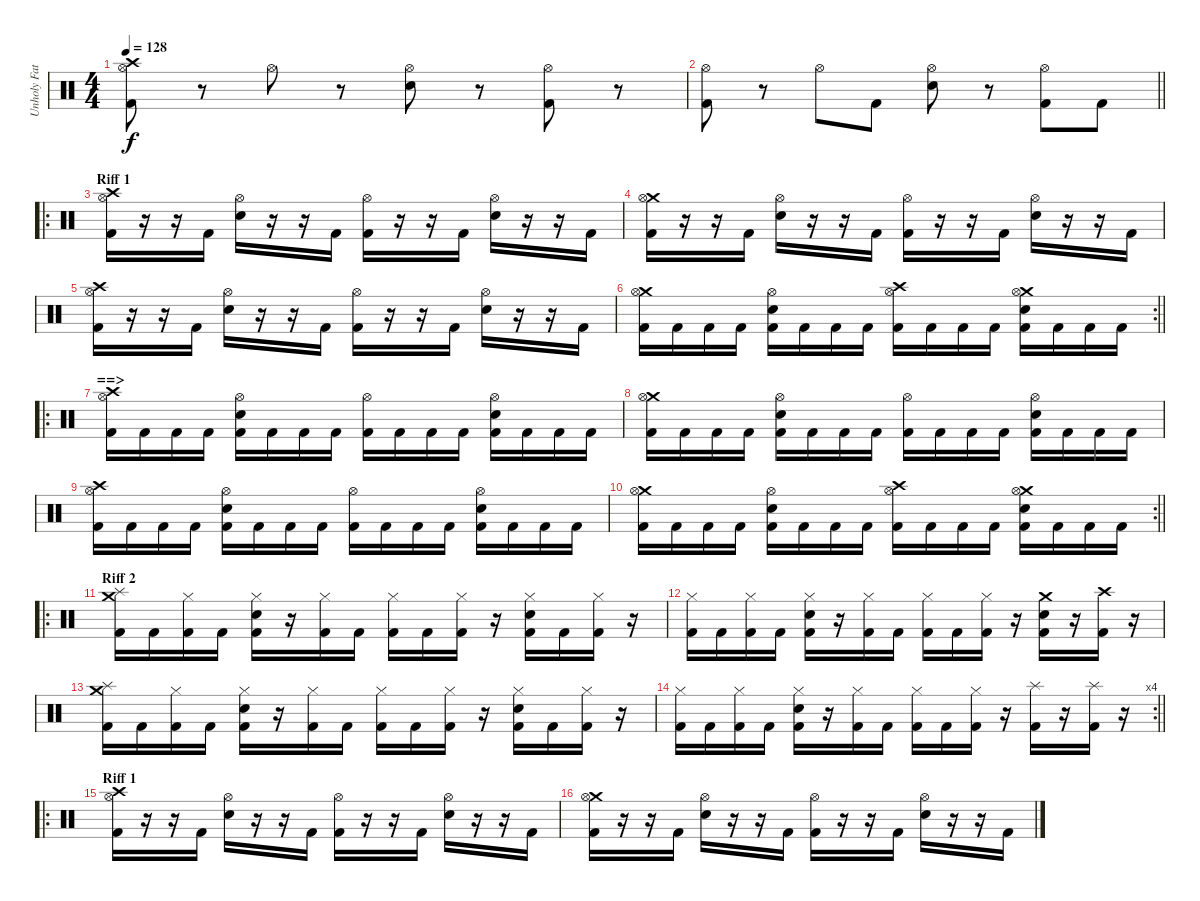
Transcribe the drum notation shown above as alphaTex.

\track ("Unholy Father" "Unholy Fat") {instrument percussion}
\staff {score}
\articulation defaults
\ts (4 4)
\tempo 128
\clef neutral
\ks c
("Crash high (hit)" "Hi-Hat (open)" "Kick (hit) 2").8{dy f} r.8 "Hi-Hat (open)".8 r.8 ("Hi-Hat (open)" "Snare (hit) 2").8 r.8 ("Hi-Hat (open)" "Kick (hit) 2").8 r.8 |
\barLineRight lightlight
("Hi-Hat (open)" "Kick (hit) 2").8 r.8 "Hi-Hat (open)".8 "Kick (hit) 2".8 ("Hi-Hat (open)" "Snare (hit) 2").8 r.8 ("Hi-Hat (open)" "Kick (hit) 2").8 "Kick (hit) 2".8 |
\ro
\section ("" "Riff 1")
("Crash high (hit)" "Hi-Hat (open)" "Kick (hit) 2").16 r.16 r.16 "Kick (hit) 2".16 ("Hi-Hat (open)" "Snare (hit) 2").16 r.16 r.16 "Kick (hit) 2".16 ("Hi-Hat (open)" "Kick (hit) 2").16 r.16 r.16 "Kick (hit) 2".16 ("Hi-Hat (open)" "Snare (hit) 2").16 r.16 r.16 "Kick (hit) 2".16 |
("Crash medium (hit)" "Hi-Hat (open)" "Kick (hit) 2").16 r.16 r.16 "Kick (hit) 2".16 ("Hi-Hat (open)" "Snare (hit) 2").16 r.16 r.16 "Kick (hit) 2".16 ("Hi-Hat (open)" "Kick (hit) 2").16 r.16 r.16 "Kick (hit) 2".16 ("Hi-Hat (open)" "Snare (hit) 2").16 r.16 r.16 "Kick (hit) 2".16 |
("Crash high (hit)" "Hi-Hat (open)" "Kick (hit) 2").16 r.16 r.16 "Kick (hit) 2".16 ("Hi-Hat (open)" "Snare (hit) 2").16 r.16 r.16 "Kick (hit) 2".16 ("Hi-Hat (open)" "Kick (hit) 2").16 r.16 r.16 "Kick (hit) 2".16 ("Hi-Hat (open)" "Snare (hit) 2").16 r.16 r.16 "Kick (hit) 2".16 |
\rc 2
\barLineRight lightlight
("Crash medium (hit)" "Hi-Hat (open)" "Kick (hit) 2").16 "Kick (hit) 2".16 "Kick (hit) 2".16 "Kick (hit) 2".16 ("Hi-Hat (open)" "Snare (hit) 2" "Kick (hit) 2").16 "Kick (hit) 2".16 "Kick (hit) 2".16 "Kick (hit) 2".16 ("Crash high (hit)" "Hi-Hat (open)" "Kick (hit) 2").16 "Kick (hit) 2".16 "Kick (hit) 2".16 "Kick (hit) 2".16 ("Crash medium (hit)" "Hi-Hat (open)" "Snare (hit) 2" "Kick (hit) 2").16 "Kick (hit) 2".16 "Kick (hit) 2".16 "Kick (hit) 2".16 |
\ro
\section ("" "==>")
("Crash high (hit)" "Hi-Hat (open)" "Kick (hit) 2").16 "Kick (hit) 2".16 "Kick (hit) 2".16 "Kick (hit) 2".16 ("Hi-Hat (open)" "Snare (hit) 2" "Kick (hit) 2").16 "Kick (hit) 2".16 "Kick (hit) 2".16 "Kick (hit) 2".16 ("Hi-Hat (open)" "Kick (hit) 2").16 "Kick (hit) 2".16 "Kick (hit) 2".16 "Kick (hit) 2".16 ("Hi-Hat (open)" "Snare (hit) 2" "Kick (hit) 2").16 "Kick (hit) 2".16 "Kick (hit) 2".16 "Kick (hit) 2".16 |
("Crash medium (hit)" "Hi-Hat (open)" "Kick (hit) 2").16 "Kick (hit) 2".16 "Kick (hit) 2".16 "Kick (hit) 2".16 ("Hi-Hat (open)" "Snare (hit) 2" "Kick (hit) 2").16 "Kick (hit) 2".16 "Kick (hit) 2".16 "Kick (hit) 2".16 ("Hi-Hat (open)" "Kick (hit) 2").16 "Kick (hit) 2".16 "Kick (hit) 2".16 "Kick (hit) 2".16 ("Hi-Hat (open)" "Snare (hit) 2" "Kick (hit) 2").16 "Kick (hit) 2".16 "Kick (hit) 2".16 "Kick (hit) 2".16 |
("Crash high (hit)" "Hi-Hat (open)" "Kick (hit) 2").16 "Kick (hit) 2".16 "Kick (hit) 2".16 "Kick (hit) 2".16 ("Hi-Hat (open)" "Snare (hit) 2" "Kick (hit) 2").16 "Kick (hit) 2".16 "Kick (hit) 2".16 "Kick (hit) 2".16 ("Hi-Hat (open)" "Kick (hit) 2").16 "Kick (hit) 2".16 "Kick (hit) 2".16 "Kick (hit) 2".16 ("Hi-Hat (open)" "Snare (hit) 2" "Kick (hit) 2").16 "Kick (hit) 2".16 "Kick (hit) 2".16 "Kick (hit) 2".16 |
\rc 2
\barLineRight lightlight
("Crash medium (hit)" "Hi-Hat (open)" "Kick (hit) 2").16 "Kick (hit) 2".16 "Kick (hit) 2".16 "Kick (hit) 2".16 ("Hi-Hat (open)" "Snare (hit) 2" "Kick (hit) 2").16 "Kick (hit) 2".16 "Kick (hit) 2".16 "Kick (hit) 2".16 ("Crash high (hit)" "Hi-Hat (open)" "Kick (hit) 2").16 "Kick (hit) 2".16 "Kick (hit) 2".16 "Kick (hit) 2".16 ("Crash medium (hit)" "Hi-Hat (open)" "Snare (hit) 2" "Kick (hit) 2").16 "Kick (hit) 2".16 "Kick (hit) 2".16 "Kick (hit) 2".16 |
\ro
\section ("" "Riff 2")
("Crash medium (hit)" "Splash (hit)" "Kick (hit) 2").16 "Kick (hit) 2".16 ("Hi-Hat (closed)" "Kick (hit) 2").16 "Kick (hit) 2".16 ("Hi-Hat (closed)" "Snare (hit) 2" "Kick (hit) 2").16 r.16 ("Hi-Hat (closed)" "Kick (hit) 2").16 "Kick (hit) 2".16 ("Hi-Hat (closed)" "Kick (hit) 2").16 "Kick (hit) 2".16 ("Hi-Hat (closed)" "Kick (hit) 2").16 r.16 ("Hi-Hat (closed)" "Snare (hit) 2" "Kick (hit) 2").16 "Kick (hit) 2".16 ("Hi-Hat (closed)" "Kick (hit) 2").16 r.16 |
("Hi-Hat (closed)" "Kick (hit) 2").16 "Kick (hit) 2".16 ("Hi-Hat (closed)" "Kick (hit) 2").16 "Kick (hit) 2".16 ("Hi-Hat (closed)" "Snare (hit) 2" "Kick (hit) 2").16 r.16 ("Hi-Hat (closed)" "Kick (hit) 2").16 "Kick (hit) 2".16 ("Hi-Hat (closed)" "Kick (hit) 2").16 "Kick (hit) 2".16 ("Hi-Hat (closed)" "Kick (hit) 2").16 r.16 ("Crash medium (hit)" "Snare (hit) 2" "Kick (hit) 2").16 r.16 ("Crash high (hit)" "Kick (hit) 2").16 r.16 |
("Crash medium (hit)" "Splash (hit)" "Kick (hit) 2").16 "Kick (hit) 2".16 ("Hi-Hat (closed)" "Kick (hit) 2").16 "Kick (hit) 2".16 ("Hi-Hat (closed)" "Snare (hit) 2" "Kick (hit) 2").16 r.16 ("Hi-Hat (closed)" "Kick (hit) 2").16 "Kick (hit) 2".16 ("Hi-Hat (closed)" "Kick (hit) 2").16 "Kick (hit) 2".16 ("Hi-Hat (closed)" "Kick (hit) 2").16 r.16 ("Hi-Hat (closed)" "Snare (hit) 2" "Kick (hit) 2").16 "Kick (hit) 2".16 ("Hi-Hat (closed)" "Kick (hit) 2").16 r.16 |
\rc 4
\barLineRight lightlight
("Hi-Hat (closed)" "Kick (hit) 2").16 "Kick (hit) 2".16 ("Hi-Hat (closed)" "Kick (hit) 2").16 "Kick (hit) 2".16 ("Hi-Hat (closed)" "Snare (hit) 2" "Kick (hit) 2").16 r.16 ("Hi-Hat (closed)" "Kick (hit) 2").16 "Kick (hit) 2".16 ("Hi-Hat (closed)" "Kick (hit) 2").16 "Kick (hit) 2".16 ("Hi-Hat (closed)" "Kick (hit) 2").16 r.16 ("Splash (hit)" "Kick (hit) 2").16 r.16 ("Splash (hit)" "Kick (hit) 2").16 r.16 |
\ro
\section ("" "Riff 1")
("Crash high (hit)" "Hi-Hat (open)" "Kick (hit) 2").16 r.16 r.16 "Kick (hit) 2".16 ("Hi-Hat (open)" "Snare (hit) 2").16 r.16 r.16 "Kick (hit) 2".16 ("Hi-Hat (open)" "Kick (hit) 2").16 r.16 r.16 "Kick (hit) 2".16 ("Hi-Hat (open)" "Snare (hit) 2").16 r.16 r.16 "Kick (hit) 2".16 |
("Crash medium (hit)" "Hi-Hat (open)" "Kick (hit) 2").16 r.16 r.16 "Kick (hit) 2".16 ("Hi-Hat (open)" "Snare (hit) 2").16 r.16 r.16 "Kick (hit) 2".16 ("Hi-Hat (open)" "Kick (hit) 2").16 r.16 r.16 "Kick (hit) 2".16 ("Hi-Hat (open)" "Snare (hit) 2").16 r.16 r.16 "Kick (hit) 2".16
